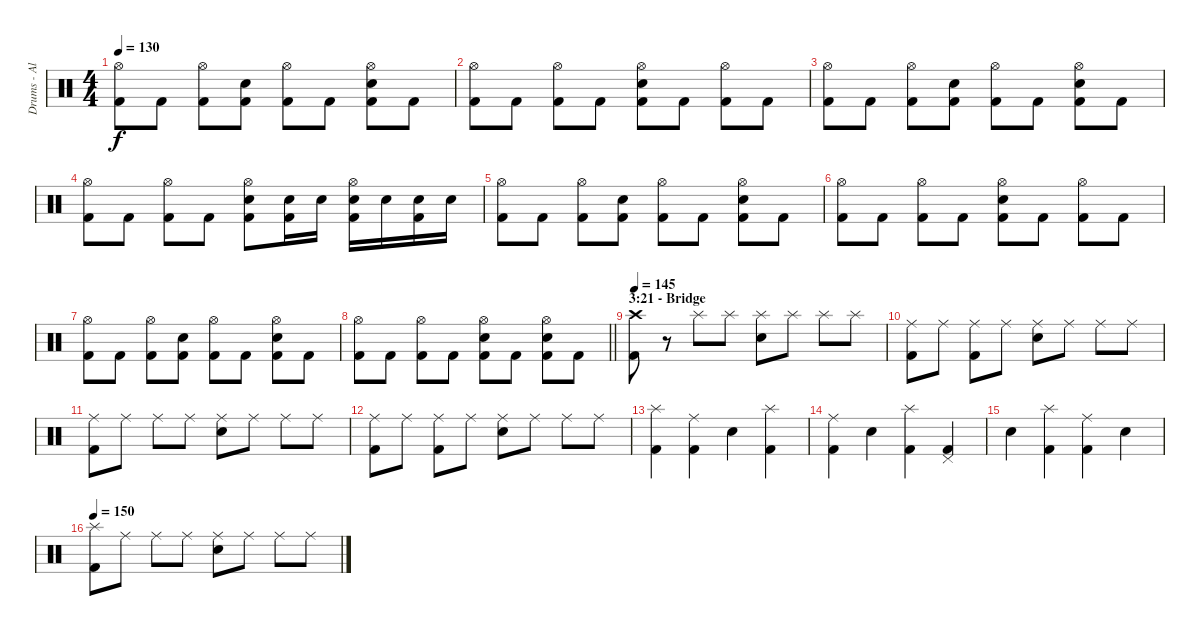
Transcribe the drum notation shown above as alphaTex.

\track ("Drums - Alex Wank" "Drums - Al") {instrument percussion}
\staff {score}
\articulation defaults
\ts (4 4)
\tempo 130
\clef neutral
\ks c
("Hi-Hat (open)" "Kick (hit) 2").8{dy f} "Kick (hit) 2".8 ("Hi-Hat (open)" "Kick (hit) 2").8 ("Electric Snare (hit)" "Kick (hit) 2").8 ("Hi-Hat (open)" "Kick (hit) 2").8 "Kick (hit) 2".8 ("Hi-Hat (open)" "Electric Snare (hit)" "Kick (hit) 2").8 "Kick (hit) 2".8 |
("Hi-Hat (open)" "Kick (hit) 2").8 "Kick (hit) 2".8 ("Hi-Hat (open)" "Kick (hit) 2").8 "Kick (hit) 2".8 ("Hi-Hat (open)" "Electric Snare (hit)" "Kick (hit) 2").8 "Kick (hit) 2".8 ("Hi-Hat (open)" "Kick (hit) 2").8 "Kick (hit) 2".8 |
("Hi-Hat (open)" "Kick (hit) 2").8 "Kick (hit) 2".8 ("Hi-Hat (open)" "Kick (hit) 2").8 ("Electric Snare (hit)" "Kick (hit) 2").8 ("Hi-Hat (open)" "Kick (hit) 2").8 "Kick (hit) 2".8 ("Hi-Hat (open)" "Electric Snare (hit)" "Kick (hit) 2").8 "Kick (hit) 2".8 |
("Hi-Hat (open)" "Kick (hit) 2").8 "Kick (hit) 2".8 ("Hi-Hat (open)" "Kick (hit) 2").8 "Kick (hit) 2".8 ("Hi-Hat (open)" "Electric Snare (hit)" "Kick (hit) 2").8 ("Electric Snare (hit)" "Kick (hit) 2").16 "Electric Snare (hit)".16 ("Hi-Hat (open)" "Electric Snare (hit)" "Kick (hit) 2").16 "Electric Snare (hit)".16 ("Electric Snare (hit)" "Kick (hit) 2").16 "Electric Snare (hit)".16 |
("Hi-Hat (open)" "Kick (hit) 2").8 "Kick (hit) 2".8 ("Hi-Hat (open)" "Kick (hit) 2").8 ("Electric Snare (hit)" "Kick (hit) 2").8 ("Hi-Hat (open)" "Kick (hit) 2").8 "Kick (hit) 2".8 ("Hi-Hat (open)" "Electric Snare (hit)" "Kick (hit) 2").8 "Kick (hit) 2".8 |
("Hi-Hat (open)" "Kick (hit) 2").8 "Kick (hit) 2".8 ("Hi-Hat (open)" "Kick (hit) 2").8 "Kick (hit) 2".8 ("Hi-Hat (open)" "Electric Snare (hit)" "Kick (hit) 2").8 "Kick (hit) 2".8 ("Hi-Hat (open)" "Kick (hit) 2").8 "Kick (hit) 2".8 |
("Hi-Hat (open)" "Kick (hit) 2").8 "Kick (hit) 2".8 ("Hi-Hat (open)" "Kick (hit) 2").8 ("Electric Snare (hit)" "Kick (hit) 2").8 ("Hi-Hat (open)" "Kick (hit) 2").8 "Kick (hit) 2".8 ("Hi-Hat (open)" "Electric Snare (hit)" "Kick (hit) 2").8 "Kick (hit) 2".8 |
\barLineRight lightlight
("Hi-Hat (open)" "Kick (hit) 2").8 "Kick (hit) 2".8 ("Hi-Hat (open)" "Kick (hit) 2").8 "Kick (hit) 2".8 ("Hi-Hat (open)" "Electric Snare (hit)" "Kick (hit) 2").8 "Kick (hit) 2".8 ("Hi-Hat (open)" "Electric Snare (hit)" "Kick (hit) 2").8 "Kick (hit) 2".8 |
\section ("" "3:21 - Bridge")
\tempo 145
("Crash high (hit)" "Kick (hit) 2").8 r.8 "Splash (hit)".8 "Splash (hit)".8 ("Splash (hit)" "Electric Snare (hit)").8 "Splash (hit)".8 "Splash (hit)".8 "Splash (hit)".8 |
("Ride (middle)" "Kick (hit) 2").8 "Ride (middle)".8 ("Ride (middle)" "Kick (hit) 2").8 "Ride (middle)".8 ("Ride (middle)" "Electric Snare (hit)").8 "Ride (middle)".8 "Ride (middle)".8 "Ride (middle)".8 |
("Ride (middle)" "Kick (hit) 2").8 "Ride (middle)".8 "Ride (middle)".8 "Ride (middle)".8 ("Ride (middle)" "Electric Snare (hit)").8 "Ride (middle)".8 "Ride (middle)".8 "Ride (middle)".8 |
("Ride (middle)" "Kick (hit) 2").8 "Ride (middle)".8 ("Ride (middle)" "Kick (hit) 2").8 "Ride (middle)".8 ("Ride (middle)" "Electric Snare (hit)").8 "Ride (middle)".8 "Ride (middle)".8 "Ride (middle)".8 |
("Splash (hit)" "Kick (hit) 2").4 ("Ride (middle)" "Kick (hit) 2").4 "Electric Snare (hit)".4 ("Splash (hit)" "Kick (hit) 2").4 |
("Ride (middle)" "Kick (hit) 2").4 "Electric Snare (hit)".4 ("Splash (hit)" "Kick (hit) 2").4 ("Pedal Hi-Hat (hit)" "Kick (hit) 2").4 |
"Electric Snare (hit)".4 ("Splash (hit)" "Kick (hit) 2").4 ("Ride (middle)" "Kick (hit) 2").4 "Electric Snare (hit)".4 |
\tempo 150
("Splash (hit)" "Kick (hit) 2").8 "Ride (middle)".8 "Ride (middle)".8 "Ride (middle)".8 ("Ride (middle)" "Electric Snare (hit)").8 "Ride (middle)".8 "Ride (middle)".8 "Ride (middle)".8
